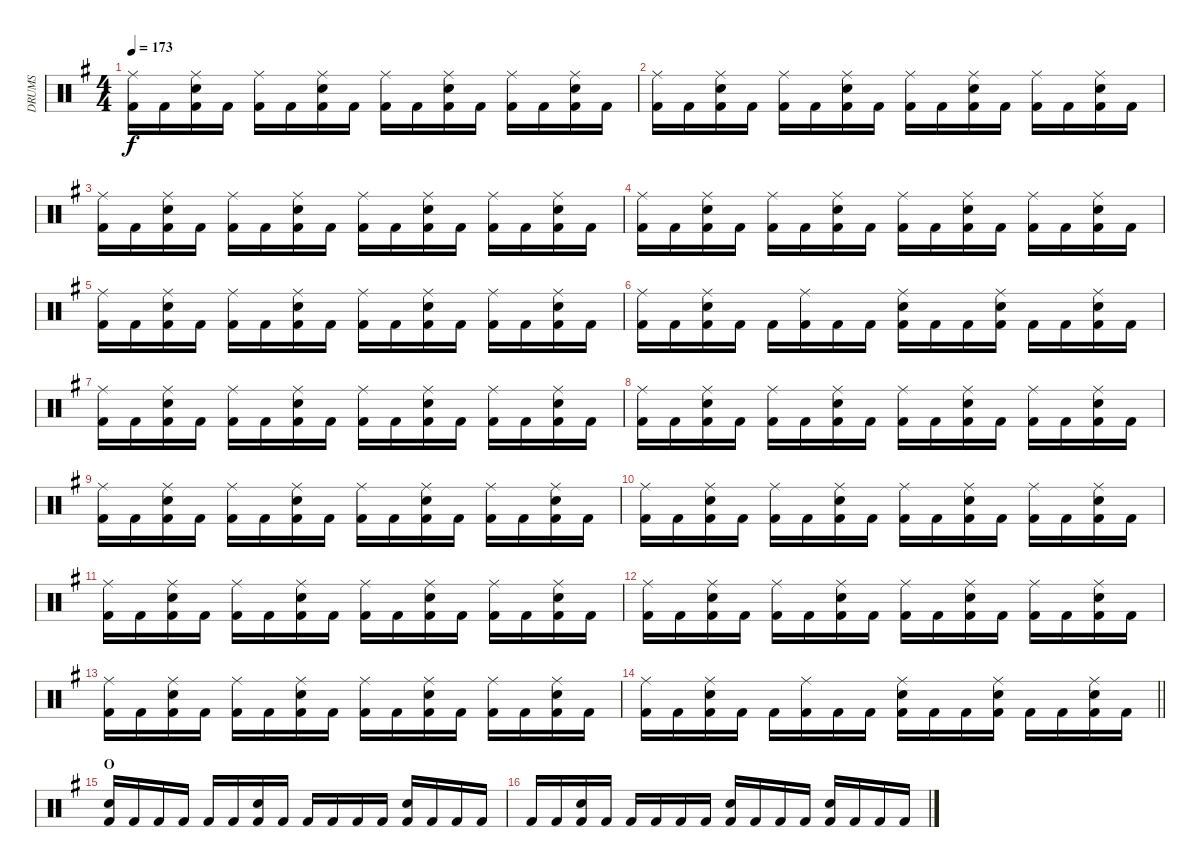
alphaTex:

\track ("DRUMS" "DRUMS") {instrument percussion}
\staff {score}
\articulation defaults
\ts (4 4)
\tempo 173
\clef neutral
\ks g
("Ride (middle)" "Kick (hit) 2").16{dy f} "Kick (hit) 2".16 ("Ride (middle)" "Snare (hit) 2" "Kick (hit) 2").16 "Kick (hit) 2".16 ("Ride (middle)" "Kick (hit) 2").16 "Kick (hit) 2".16 ("Ride (middle)" "Snare (hit) 2" "Kick (hit) 2").16 "Kick (hit) 2".16 ("Ride (middle)" "Kick (hit) 2").16 "Kick (hit) 2".16 ("Ride (middle)" "Snare (hit) 2" "Kick (hit) 2").16 "Kick (hit) 2".16 ("Ride (middle)" "Kick (hit) 2").16 "Kick (hit) 2".16 ("Ride (middle)" "Snare (hit) 2" "Kick (hit) 2").16 "Kick (hit) 2".16 |
("Ride (middle)" "Kick (hit) 2").16 "Kick (hit) 2".16 ("Ride (middle)" "Snare (hit) 2" "Kick (hit) 2").16 "Kick (hit) 2".16 ("Ride (middle)" "Kick (hit) 2").16 "Kick (hit) 2".16 ("Ride (middle)" "Snare (hit) 2" "Kick (hit) 2").16 "Kick (hit) 2".16 ("Ride (middle)" "Kick (hit) 2").16 "Kick (hit) 2".16 ("Ride (middle)" "Snare (hit) 2" "Kick (hit) 2").16 "Kick (hit) 2".16 ("Ride (middle)" "Kick (hit) 2").16 "Kick (hit) 2".16 ("Ride (middle)" "Snare (hit) 2" "Kick (hit) 2").16 "Kick (hit) 2".16 |
("Ride (middle)" "Kick (hit) 2").16 "Kick (hit) 2".16 ("Ride (middle)" "Snare (hit) 2" "Kick (hit) 2").16 "Kick (hit) 2".16 ("Ride (middle)" "Kick (hit) 2").16 "Kick (hit) 2".16 ("Ride (middle)" "Snare (hit) 2" "Kick (hit) 2").16 "Kick (hit) 2".16 ("Ride (middle)" "Kick (hit) 2").16 "Kick (hit) 2".16 ("Ride (middle)" "Snare (hit) 2" "Kick (hit) 2").16 "Kick (hit) 2".16 ("Ride (middle)" "Kick (hit) 2").16 "Kick (hit) 2".16 ("Ride (middle)" "Snare (hit) 2" "Kick (hit) 2").16 "Kick (hit) 2".16 |
("Ride (middle)" "Kick (hit) 2").16 "Kick (hit) 2".16 ("Ride (middle)" "Snare (hit) 2" "Kick (hit) 2").16 "Kick (hit) 2".16 ("Ride (middle)" "Kick (hit) 2").16 "Kick (hit) 2".16 ("Ride (middle)" "Snare (hit) 2" "Kick (hit) 2").16 "Kick (hit) 2".16 ("Ride (middle)" "Kick (hit) 2").16 "Kick (hit) 2".16 ("Ride (middle)" "Snare (hit) 2" "Kick (hit) 2").16 "Kick (hit) 2".16 ("Ride (middle)" "Kick (hit) 2").16 "Kick (hit) 2".16 ("Ride (middle)" "Snare (hit) 2" "Kick (hit) 2").16 "Kick (hit) 2".16 |
("Ride (middle)" "Kick (hit) 2").16 "Kick (hit) 2".16 ("Ride (middle)" "Snare (hit) 2" "Kick (hit) 2").16 "Kick (hit) 2".16 ("Ride (middle)" "Kick (hit) 2").16 "Kick (hit) 2".16 ("Ride (middle)" "Snare (hit) 2" "Kick (hit) 2").16 "Kick (hit) 2".16 ("Ride (middle)" "Kick (hit) 2").16 "Kick (hit) 2".16 ("Ride (middle)" "Snare (hit) 2" "Kick (hit) 2").16 "Kick (hit) 2".16 ("Ride (middle)" "Kick (hit) 2").16 "Kick (hit) 2".16 ("Ride (middle)" "Snare (hit) 2" "Kick (hit) 2").16 "Kick (hit) 2".16 |
("Ride (middle)" "Kick (hit) 2").16 "Kick (hit) 2".16 ("Ride (middle)" "Snare (hit) 2" "Kick (hit) 2").16 "Kick (hit) 2".16 "Kick (hit) 2".16 ("Ride (middle)" "Kick (hit) 2").16 "Kick (hit) 2".16 "Kick (hit) 2".16 ("Ride (middle)" "Snare (hit) 2" "Kick (hit) 2").16 "Kick (hit) 2".16 "Kick (hit) 2".16 ("Ride (middle)" "Snare (hit) 2" "Kick (hit) 2").16 "Kick (hit) 2".16 "Kick (hit) 2".16 ("Ride (middle)" "Snare (hit) 2" "Kick (hit) 2").16 "Kick (hit) 2".16 |
("Ride (middle)" "Kick (hit) 2").16 "Kick (hit) 2".16 ("Ride (middle)" "Snare (hit) 2" "Kick (hit) 2").16 "Kick (hit) 2".16 ("Ride (middle)" "Kick (hit) 2").16 "Kick (hit) 2".16 ("Ride (middle)" "Snare (hit) 2" "Kick (hit) 2").16 "Kick (hit) 2".16 ("Ride (middle)" "Kick (hit) 2").16 "Kick (hit) 2".16 ("Ride (middle)" "Snare (hit) 2" "Kick (hit) 2").16 "Kick (hit) 2".16 ("Ride (middle)" "Kick (hit) 2").16 "Kick (hit) 2".16 ("Ride (middle)" "Snare (hit) 2" "Kick (hit) 2").16 "Kick (hit) 2".16 |
("Ride (middle)" "Kick (hit) 2").16 "Kick (hit) 2".16 ("Ride (middle)" "Snare (hit) 2" "Kick (hit) 2").16 "Kick (hit) 2".16 ("Ride (middle)" "Kick (hit) 2").16 "Kick (hit) 2".16 ("Ride (middle)" "Snare (hit) 2" "Kick (hit) 2").16 "Kick (hit) 2".16 ("Ride (middle)" "Kick (hit) 2").16 "Kick (hit) 2".16 ("Ride (middle)" "Snare (hit) 2" "Kick (hit) 2").16 "Kick (hit) 2".16 ("Ride (middle)" "Kick (hit) 2").16 "Kick (hit) 2".16 ("Ride (middle)" "Snare (hit) 2" "Kick (hit) 2").16 "Kick (hit) 2".16 |
("Ride (middle)" "Kick (hit) 2").16 "Kick (hit) 2".16 ("Ride (middle)" "Snare (hit) 2" "Kick (hit) 2").16 "Kick (hit) 2".16 ("Ride (middle)" "Kick (hit) 2").16 "Kick (hit) 2".16 ("Ride (middle)" "Snare (hit) 2" "Kick (hit) 2").16 "Kick (hit) 2".16 ("Ride (middle)" "Kick (hit) 2").16 "Kick (hit) 2".16 ("Ride (middle)" "Snare (hit) 2" "Kick (hit) 2").16 "Kick (hit) 2".16 ("Ride (middle)" "Kick (hit) 2").16 "Kick (hit) 2".16 ("Ride (middle)" "Snare (hit) 2" "Kick (hit) 2").16 "Kick (hit) 2".16 |
("Ride (middle)" "Kick (hit) 2").16 "Kick (hit) 2".16 ("Ride (middle)" "Snare (hit) 2" "Kick (hit) 2").16 "Kick (hit) 2".16 ("Ride (middle)" "Kick (hit) 2").16 "Kick (hit) 2".16 ("Ride (middle)" "Snare (hit) 2" "Kick (hit) 2").16 "Kick (hit) 2".16 ("Ride (middle)" "Kick (hit) 2").16 "Kick (hit) 2".16 ("Ride (middle)" "Snare (hit) 2" "Kick (hit) 2").16 "Kick (hit) 2".16 ("Ride (middle)" "Kick (hit) 2").16 "Kick (hit) 2".16 ("Ride (middle)" "Snare (hit) 2" "Kick (hit) 2").16 "Kick (hit) 2".16 |
("Ride (middle)" "Kick (hit) 2").16 "Kick (hit) 2".16 ("Ride (middle)" "Snare (hit) 2" "Kick (hit) 2").16 "Kick (hit) 2".16 ("Ride (middle)" "Kick (hit) 2").16 "Kick (hit) 2".16 ("Ride (middle)" "Snare (hit) 2" "Kick (hit) 2").16 "Kick (hit) 2".16 ("Ride (middle)" "Kick (hit) 2").16 "Kick (hit) 2".16 ("Ride (middle)" "Snare (hit) 2" "Kick (hit) 2").16 "Kick (hit) 2".16 ("Ride (middle)" "Kick (hit) 2").16 "Kick (hit) 2".16 ("Ride (middle)" "Snare (hit) 2" "Kick (hit) 2").16 "Kick (hit) 2".16 |
("Ride (middle)" "Kick (hit) 2").16 "Kick (hit) 2".16 ("Ride (middle)" "Snare (hit) 2" "Kick (hit) 2").16 "Kick (hit) 2".16 ("Ride (middle)" "Kick (hit) 2").16 "Kick (hit) 2".16 ("Ride (middle)" "Snare (hit) 2" "Kick (hit) 2").16 "Kick (hit) 2".16 ("Ride (middle)" "Kick (hit) 2").16 "Kick (hit) 2".16 ("Ride (middle)" "Snare (hit) 2" "Kick (hit) 2").16 "Kick (hit) 2".16 ("Ride (middle)" "Kick (hit) 2").16 "Kick (hit) 2".16 ("Ride (middle)" "Snare (hit) 2" "Kick (hit) 2").16 "Kick (hit) 2".16 |
("Ride (middle)" "Kick (hit) 2").16 "Kick (hit) 2".16 ("Ride (middle)" "Snare (hit) 2" "Kick (hit) 2").16 "Kick (hit) 2".16 ("Ride (middle)" "Kick (hit) 2").16 "Kick (hit) 2".16 ("Ride (middle)" "Snare (hit) 2" "Kick (hit) 2").16 "Kick (hit) 2".16 ("Ride (middle)" "Kick (hit) 2").16 "Kick (hit) 2".16 ("Ride (middle)" "Snare (hit) 2" "Kick (hit) 2").16 "Kick (hit) 2".16 ("Ride (middle)" "Kick (hit) 2").16 "Kick (hit) 2".16 ("Ride (middle)" "Snare (hit) 2" "Kick (hit) 2").16 "Kick (hit) 2".16 |
\barLineRight lightlight
("Ride (middle)" "Kick (hit) 2").16 "Kick (hit) 2".16 ("Ride (middle)" "Snare (hit) 2" "Kick (hit) 2").16 "Kick (hit) 2".16 "Kick (hit) 2".16 ("Ride (middle)" "Kick (hit) 2").16 "Kick (hit) 2".16 "Kick (hit) 2".16 ("Ride (middle)" "Snare (hit) 2" "Kick (hit) 2").16 "Kick (hit) 2".16 "Kick (hit) 2".16 ("Ride (middle)" "Snare (hit) 2" "Kick (hit) 2").16 "Kick (hit) 2".16 "Kick (hit) 2".16 ("Ride (middle)" "Snare (hit) 2" "Kick (hit) 2").16 "Kick (hit) 2".16 |
\section ("" "O")
("Snare (hit) 2" "Kick (hit) 2").16 "Kick (hit) 2".16 "Kick (hit) 2".16 "Kick (hit) 2".16 "Kick (hit) 2".16 "Kick (hit) 2".16 ("Snare (hit) 2" "Kick (hit) 2").16 "Kick (hit) 2".16 "Kick (hit) 2".16 "Kick (hit) 2".16 "Kick (hit) 2".16 "Kick (hit) 2".16 ("Snare (hit) 2" "Kick (hit) 2").16 "Kick (hit) 2".16 "Kick (hit) 2".16 "Kick (hit) 2".16 |
"Kick (hit) 2".16 "Kick (hit) 2".16 ("Snare (hit) 2" "Kick (hit) 2").16 "Kick (hit) 2".16 "Kick (hit) 2".16 "Kick (hit) 2".16 "Kick (hit) 2".16 "Kick (hit) 2".16 ("Snare (hit) 2" "Kick (hit) 2").16 "Kick (hit) 2".16 "Kick (hit) 2".16 "Kick (hit) 2".16 ("Snare (hit) 2" "Kick (hit) 2").16 "Kick (hit) 2".16 "Kick (hit) 2".16 "Kick (hit) 2".16
